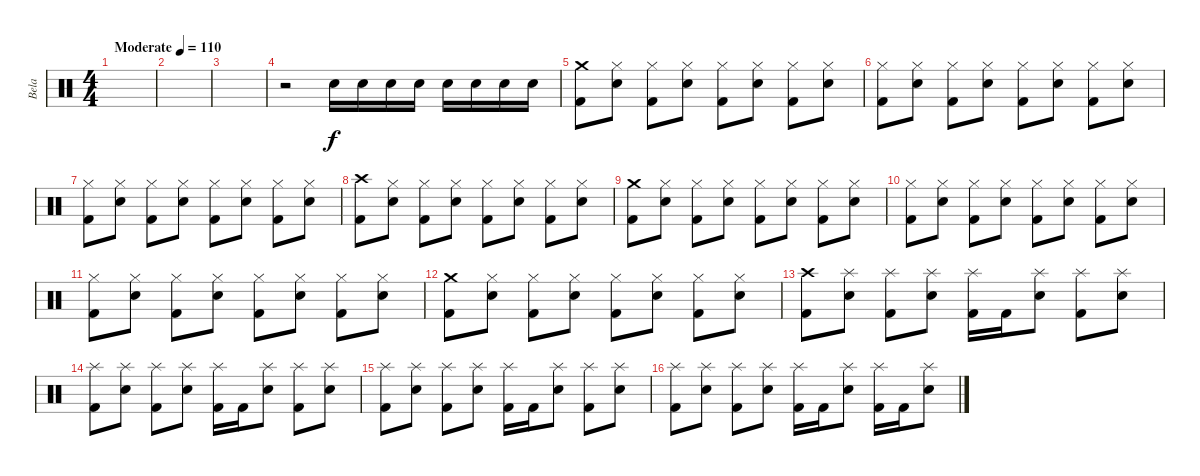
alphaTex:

\track ("Bela " "Bela ") {instrument percussion}
\staff {score}
\articulation defaults
\ts (4 4)
\tempo (110 "Moderate")
\clef neutral
\ks c
|
|
|
r.2 "Electric Snare (hit)".16 "Electric Snare (hit)".16 "Electric Snare (hit)".16 "Electric Snare (hit)".16 "Electric Snare (hit)".16 "Electric Snare (hit)".16 "Electric Snare (hit)".16 "Electric Snare (hit)".16 |
("Crash medium (hit)" "Kick (hit) 2").8 ("Hi-Hat (closed)" "Electric Snare (hit)").8 ("Hi-Hat (closed)" "Kick (hit) 2").8 ("Hi-Hat (closed)" "Electric Snare (hit)").8 ("Hi-Hat (closed)" "Kick (hit) 2").8 ("Hi-Hat (closed)" "Electric Snare (hit)").8 ("Hi-Hat (closed)" "Kick (hit) 2").8 ("Hi-Hat (closed)" "Electric Snare (hit)").8 |
("Hi-Hat (closed)" "Kick (hit) 2").8 ("Hi-Hat (closed)" "Electric Snare (hit)").8 ("Hi-Hat (closed)" "Kick (hit) 2").8 ("Hi-Hat (closed)" "Electric Snare (hit)").8 ("Hi-Hat (closed)" "Kick (hit) 2").8 ("Hi-Hat (closed)" "Electric Snare (hit)").8 ("Hi-Hat (closed)" "Kick (hit) 2").8 ("Hi-Hat (closed)" "Electric Snare (hit)").8 |
("Hi-Hat (closed)" "Kick (hit) 2").8 ("Hi-Hat (closed)" "Electric Snare (hit)").8 ("Hi-Hat (closed)" "Kick (hit) 2").8 ("Hi-Hat (closed)" "Electric Snare (hit)").8 ("Hi-Hat (closed)" "Kick (hit) 2").8 ("Hi-Hat (closed)" "Electric Snare (hit)").8 ("Hi-Hat (closed)" "Kick (hit) 2").8 ("Hi-Hat (closed)" "Electric Snare (hit)").8 |
("Crash high (hit)" "Kick (hit) 2").8 ("Hi-Hat (closed)" "Electric Snare (hit)").8 ("Hi-Hat (closed)" "Kick (hit) 2").8 ("Hi-Hat (closed)" "Electric Snare (hit)").8 ("Hi-Hat (closed)" "Kick (hit) 2").8 ("Hi-Hat (closed)" "Electric Snare (hit)").8 ("Hi-Hat (closed)" "Kick (hit) 2").8 ("Hi-Hat (closed)" "Electric Snare (hit)").8 |
("Crash medium (hit)" "Kick (hit) 2").8 ("Hi-Hat (closed)" "Electric Snare (hit)").8 ("Hi-Hat (closed)" "Kick (hit) 2").8 ("Hi-Hat (closed)" "Electric Snare (hit)").8 ("Hi-Hat (closed)" "Kick (hit) 2").8 ("Hi-Hat (closed)" "Electric Snare (hit)").8 ("Hi-Hat (closed)" "Kick (hit) 2").8 ("Hi-Hat (closed)" "Electric Snare (hit)").8 |
("Hi-Hat (closed)" "Kick (hit) 2").8 ("Hi-Hat (closed)" "Electric Snare (hit)").8 ("Hi-Hat (closed)" "Kick (hit) 2").8 ("Hi-Hat (closed)" "Electric Snare (hit)").8 ("Hi-Hat (closed)" "Kick (hit) 2").8 ("Hi-Hat (closed)" "Electric Snare (hit)").8 ("Hi-Hat (closed)" "Kick (hit) 2").8 ("Hi-Hat (closed)" "Electric Snare (hit)").8 |
("Hi-Hat (closed)" "Kick (hit) 2").8 ("Hi-Hat (closed)" "Electric Snare (hit)").8 ("Hi-Hat (closed)" "Kick (hit) 2").8 ("Hi-Hat (closed)" "Electric Snare (hit)").8 ("Hi-Hat (closed)" "Kick (hit) 2").8 ("Hi-Hat (closed)" "Electric Snare (hit)").8 ("Hi-Hat (closed)" "Kick (hit) 2").8 ("Hi-Hat (closed)" "Electric Snare (hit)").8 |
("Crash medium (hit)" "Kick (hit) 2").8 ("Hi-Hat (closed)" "Electric Snare (hit)").8 ("Hi-Hat (closed)" "Kick (hit) 2").8 ("Hi-Hat (closed)" "Electric Snare (hit)").8 ("Hi-Hat (closed)" "Kick (hit) 2").8 ("Hi-Hat (closed)" "Electric Snare (hit)").8 ("Hi-Hat (closed)" "Kick (hit) 2").8 ("Hi-Hat (closed)" "Electric Snare (hit)").8 |
("Crash high (hit)" "Kick (hit) 2").8 ("Splash (hit)" "Electric Snare (hit)").8 ("Splash (hit)" "Kick (hit) 2").8 ("Splash (hit)" "Electric Snare (hit)").8 ("Splash (hit)" "Kick (hit) 2").16 "Kick (hit) 2".16 ("Splash (hit)" "Electric Snare (hit)").8 ("Splash (hit)" "Kick (hit) 2").8 ("Splash (hit)" "Electric Snare (hit)").8 |
("Splash (hit)" "Kick (hit) 2").8 ("Splash (hit)" "Electric Snare (hit)").8 ("Splash (hit)" "Kick (hit) 2").8 ("Splash (hit)" "Electric Snare (hit)").8 ("Splash (hit)" "Kick (hit) 2").16 "Kick (hit) 2".16 ("Splash (hit)" "Electric Snare (hit)").8 ("Splash (hit)" "Kick (hit) 2").8 ("Splash (hit)" "Electric Snare (hit)").8 |
("Splash (hit)" "Kick (hit) 2").8 ("Splash (hit)" "Electric Snare (hit)").8 ("Splash (hit)" "Kick (hit) 2").8 ("Splash (hit)" "Electric Snare (hit)").8 ("Splash (hit)" "Kick (hit) 2").16 "Kick (hit) 2".16 ("Splash (hit)" "Electric Snare (hit)").8 ("Splash (hit)" "Kick (hit) 2").8 ("Splash (hit)" "Electric Snare (hit)").8 |
("Splash (hit)" "Kick (hit) 2").8 ("Splash (hit)" "Electric Snare (hit)").8 ("Splash (hit)" "Kick (hit) 2").8 ("Splash (hit)" "Electric Snare (hit)").8 ("Splash (hit)" "Kick (hit) 2").16 "Kick (hit) 2".16 ("Splash (hit)" "Electric Snare (hit)").8 ("Splash (hit)" "Kick (hit) 2").16 "Kick (hit) 2".16 ("Splash (hit)" "Electric Snare (hit)").8
